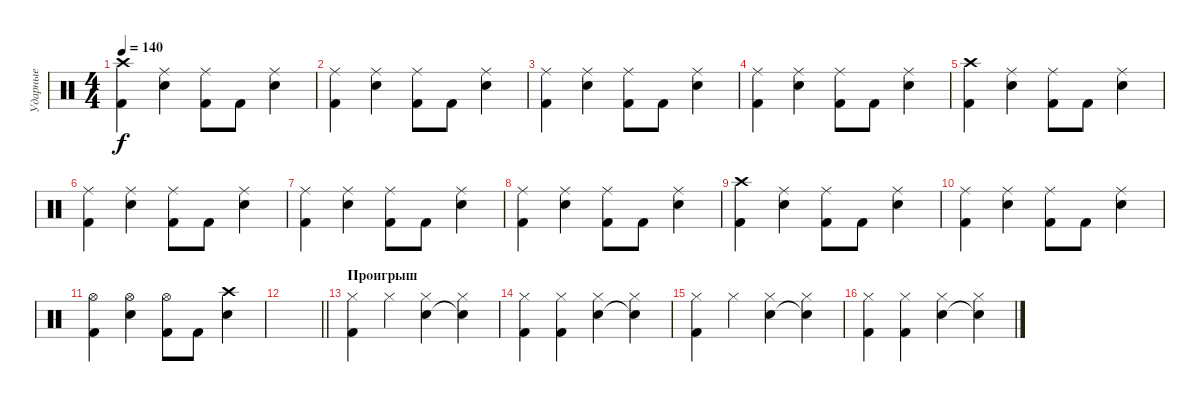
\track ("Ударные" "Ударные") {instrument percussion}
\staff {score}
\articulation defaults
\ts (4 4)
\tempo 140
\clef neutral
\ks c
("Crash high (hit)" "Kick (hit) 2").4{dy f} ("Ride (middle)" "Electric Snare (hit)").4 ("Ride (middle)" "Kick (hit) 2").8 "Kick (hit) 2".8 ("Ride (middle)" "Electric Snare (hit)").4 |
("Ride (middle)" "Kick (hit) 2").4 ("Ride (middle)" "Electric Snare (hit)").4 ("Ride (middle)" "Kick (hit) 2").8 "Kick (hit) 2".8 ("Ride (middle)" "Electric Snare (hit)").4 |
("Ride (middle)" "Kick (hit) 2").4 ("Ride (middle)" "Electric Snare (hit)").4 ("Ride (middle)" "Kick (hit) 2").8 "Kick (hit) 2".8 ("Ride (middle)" "Electric Snare (hit)").4 |
("Ride (middle)" "Kick (hit) 2").4 ("Ride (middle)" "Electric Snare (hit)").4 ("Ride (middle)" "Kick (hit) 2").8 "Kick (hit) 2".8 ("Ride (middle)" "Electric Snare (hit)").4 |
("Crash high (hit)" "Kick (hit) 2").4 ("Ride (middle)" "Electric Snare (hit)").4 ("Ride (middle)" "Kick (hit) 2").8 "Kick (hit) 2".8 ("Ride (middle)" "Electric Snare (hit)").4 |
("Ride (middle)" "Kick (hit) 2").4 ("Ride (middle)" "Electric Snare (hit)").4 ("Ride (middle)" "Kick (hit) 2").8 "Kick (hit) 2".8 ("Ride (middle)" "Electric Snare (hit)").4 |
("Ride (middle)" "Kick (hit) 2").4 ("Ride (middle)" "Electric Snare (hit)").4 ("Ride (middle)" "Kick (hit) 2").8 "Kick (hit) 2".8 ("Ride (middle)" "Electric Snare (hit)").4 |
("Ride (middle)" "Kick (hit) 2").4 ("Ride (middle)" "Electric Snare (hit)").4 ("Ride (middle)" "Kick (hit) 2").8 "Kick (hit) 2".8 ("Ride (middle)" "Electric Snare (hit)").4 |
("Crash high (hit)" "Kick (hit) 2").4 ("Ride (middle)" "Electric Snare (hit)").4 ("Ride (middle)" "Kick (hit) 2").8 "Kick (hit) 2".8 ("Ride (middle)" "Electric Snare (hit)").4 |
("Ride (middle)" "Kick (hit) 2").4 ("Ride (middle)" "Electric Snare (hit)").4 ("Ride (middle)" "Kick (hit) 2").8 "Kick (hit) 2".8 ("Ride (middle)" "Electric Snare (hit)").4 |
("Hi-Hat (open)" "Kick (hit) 2").4 ("Hi-Hat (open)" "Electric Snare (hit)").4 ("Hi-Hat (open)" "Kick (hit) 2").8 "Kick (hit) 2".8 ("Crash high (hit)" "Electric Snare (hit)").4 |
\barLineRight lightlight
|
\section ("" "Проигрыш")
("Hi-Hat (closed)" "Kick (hit) 2").4 "Hi-Hat (closed)".4 ("Hi-Hat (closed)" "Electric Snare (hit)").4 ("Hi-Hat (closed)" "Snare (hit)"{t}).4 |
("Hi-Hat (closed)" "Kick (hit) 2").4 ("Hi-Hat (closed)" "Kick (hit) 2").4 ("Hi-Hat (closed)" "Electric Snare (hit)").4 ("Hi-Hat (closed)" "Snare (hit)"{t}).4 |
("Hi-Hat (closed)" "Kick (hit) 2").4 "Hi-Hat (closed)".4 ("Hi-Hat (closed)" "Electric Snare (hit)").4 ("Hi-Hat (closed)" "Snare (hit)"{t}).4 |
("Hi-Hat (closed)" "Kick (hit) 2").4 ("Hi-Hat (closed)" "Kick (hit) 2").4 ("Hi-Hat (closed)" "Electric Snare (hit)").4 ("Hi-Hat (closed)" "Snare (hit)"{t}).4
